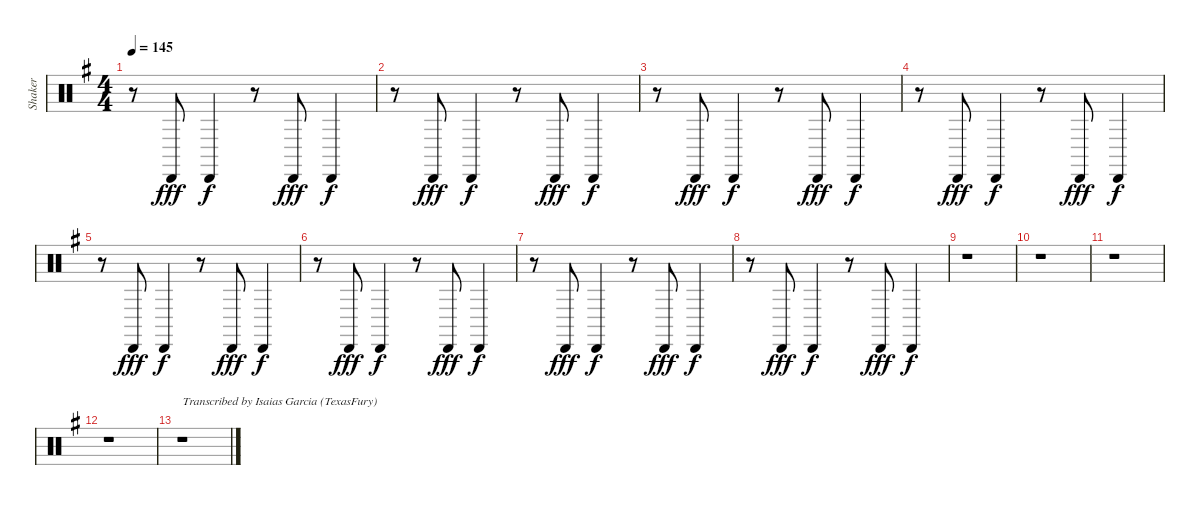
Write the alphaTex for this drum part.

\track ("Shaker" "Shaker") {instrument percussion}
\staff {score}
\articulation defaults
\ts (4 4)
\tempo 145
\clef neutral
\ks g
r.8{dy f} "Cabasa (hit)".8{dy fff} "Cabasa (hit)".4{dy f} r.8 "Cabasa (hit)".8{dy fff} "Cabasa (hit)".4{dy f} |
r.8 "Cabasa (hit)".8{dy fff} "Cabasa (hit)".4{dy f} r.8 "Cabasa (hit)".8{dy fff} "Cabasa (hit)".4{dy f} |
r.8 "Cabasa (hit)".8{dy fff} "Cabasa (hit)".4{dy f} r.8 "Cabasa (hit)".8{dy fff} "Cabasa (hit)".4{dy f} |
r.8 "Cabasa (hit)".8{dy fff} "Cabasa (hit)".4{dy f} r.8 "Cabasa (hit)".8{dy fff} "Cabasa (hit)".4{dy f} |
r.8 "Cabasa (hit)".8{dy fff} "Cabasa (hit)".4{dy f} r.8 "Cabasa (hit)".8{dy fff} "Cabasa (hit)".4{dy f} |
r.8 "Cabasa (hit)".8{dy fff} "Cabasa (hit)".4{dy f} r.8 "Cabasa (hit)".8{dy fff} "Cabasa (hit)".4{dy f} |
r.8 "Cabasa (hit)".8{dy fff} "Cabasa (hit)".4{dy f} r.8 "Cabasa (hit)".8{dy fff} "Cabasa (hit)".4{dy f} |
r.8 "Cabasa (hit)".8{dy fff} "Cabasa (hit)".4{dy f} r.8 "Cabasa (hit)".8{dy fff} "Cabasa (hit)".4{dy f} |
r.1 |
r.1 |
r.1 |
r.1 |
r.1{txt "Transcribed by Isaias Garcia (TexasFury)"}
